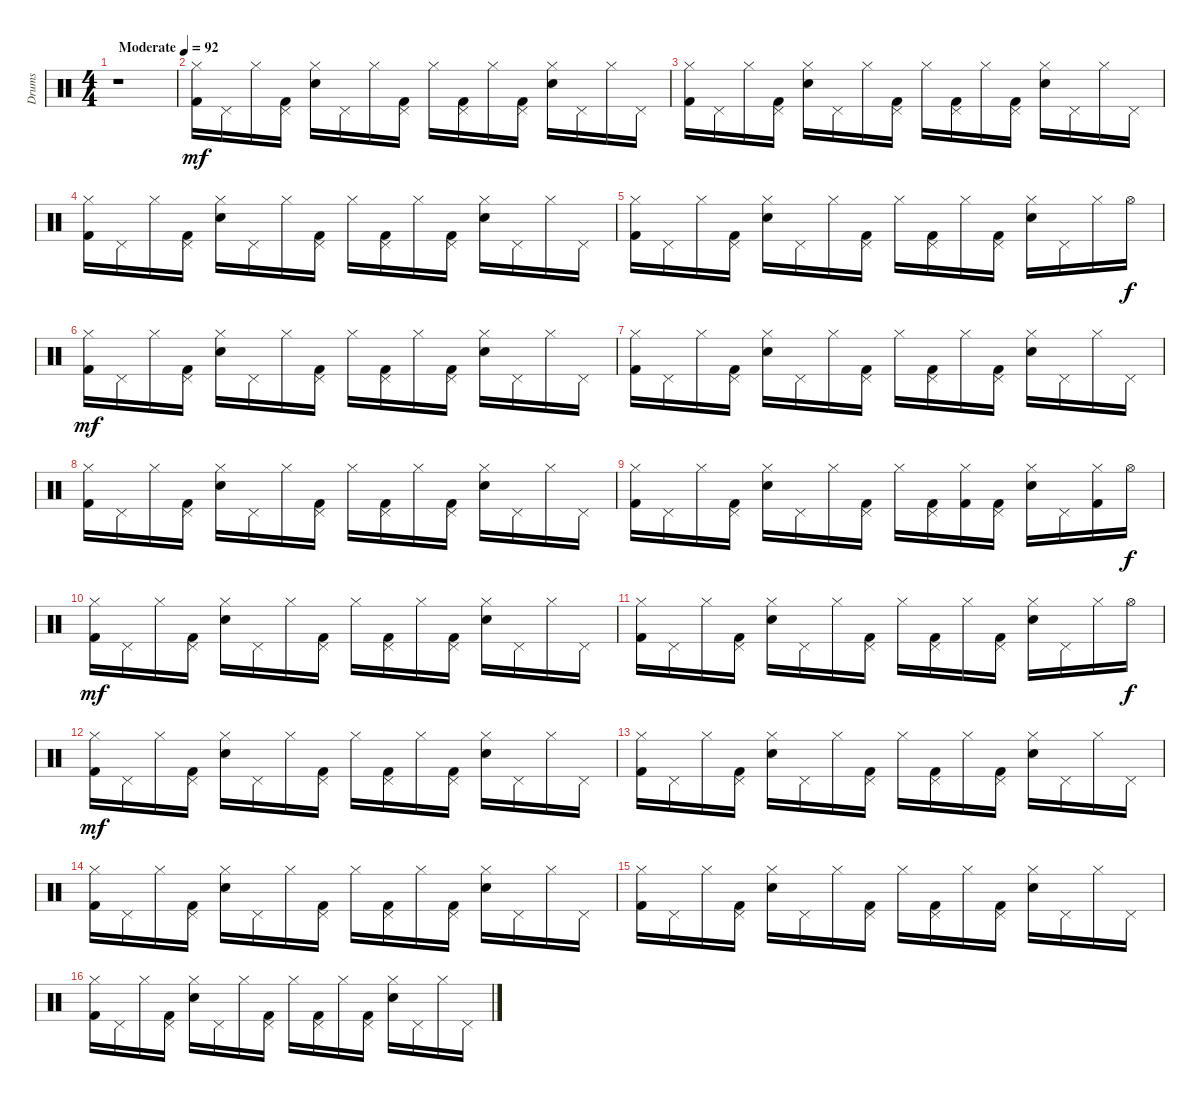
\track ("Drums" "Drums") {instrument percussion}
\staff {score}
\articulation defaults
\ts (4 4)
\tempo (92 "Moderate")
\clef neutral
\ks c
r.1{dy mf} |
("Kick (hit) 2" "Hi-Hat (closed)").16 "Pedal Hi-Hat (hit)".16 "Hi-Hat (closed)".16 ("Kick (hit) 2" "Pedal Hi-Hat (hit)").16 ("Electric Snare (hit)" "Hi-Hat (closed)").16 "Pedal Hi-Hat (hit)".16 "Hi-Hat (closed)".16 ("Kick (hit) 2" "Pedal Hi-Hat (hit)").16 "Hi-Hat (closed)".16 ("Kick (hit) 2" "Pedal Hi-Hat (hit)").16 "Hi-Hat (closed)".16 ("Kick (hit) 2" "Pedal Hi-Hat (hit)").16 ("Electric Snare (hit)" "Hi-Hat (closed)").16 "Pedal Hi-Hat (hit)".16 "Hi-Hat (closed)".16 "Pedal Hi-Hat (hit)".16 |
("Kick (hit) 2" "Hi-Hat (closed)").16 "Pedal Hi-Hat (hit)".16 "Hi-Hat (closed)".16 ("Kick (hit) 2" "Pedal Hi-Hat (hit)").16 ("Electric Snare (hit)" "Hi-Hat (closed)").16 "Pedal Hi-Hat (hit)".16 "Hi-Hat (closed)".16 ("Kick (hit) 2" "Pedal Hi-Hat (hit)").16 "Hi-Hat (closed)".16 ("Kick (hit) 2" "Pedal Hi-Hat (hit)").16 "Hi-Hat (closed)".16 ("Kick (hit) 2" "Pedal Hi-Hat (hit)").16 ("Electric Snare (hit)" "Hi-Hat (closed)").16 "Pedal Hi-Hat (hit)".16 "Hi-Hat (closed)".16 "Pedal Hi-Hat (hit)".16 |
("Kick (hit) 2" "Hi-Hat (closed)").16 "Pedal Hi-Hat (hit)".16 "Hi-Hat (closed)".16 ("Kick (hit) 2" "Pedal Hi-Hat (hit)").16 ("Electric Snare (hit)" "Hi-Hat (closed)").16 "Pedal Hi-Hat (hit)".16 "Hi-Hat (closed)".16 ("Kick (hit) 2" "Pedal Hi-Hat (hit)").16 "Hi-Hat (closed)".16 ("Kick (hit) 2" "Pedal Hi-Hat (hit)").16 "Hi-Hat (closed)".16 ("Kick (hit) 2" "Pedal Hi-Hat (hit)").16 ("Electric Snare (hit)" "Hi-Hat (closed)").16 "Pedal Hi-Hat (hit)".16 "Hi-Hat (closed)".16 "Pedal Hi-Hat (hit)".16 |
("Kick (hit) 2" "Hi-Hat (closed)").16 "Pedal Hi-Hat (hit)".16 "Hi-Hat (closed)".16 ("Kick (hit) 2" "Pedal Hi-Hat (hit)").16 ("Electric Snare (hit)" "Hi-Hat (closed)").16 "Pedal Hi-Hat (hit)".16 "Hi-Hat (closed)".16 ("Kick (hit) 2" "Pedal Hi-Hat (hit)").16 "Hi-Hat (closed)".16 ("Kick (hit) 2" "Pedal Hi-Hat (hit)").16 "Hi-Hat (closed)".16 ("Kick (hit) 2" "Pedal Hi-Hat (hit)").16 ("Electric Snare (hit)" "Hi-Hat (closed)").16 "Pedal Hi-Hat (hit)".16 "Hi-Hat (closed)".16 "Hi-Hat (open)".16{dy f} |
("Kick (hit) 2" "Hi-Hat (closed)").16{dy mf} "Pedal Hi-Hat (hit)".16 "Hi-Hat (closed)".16 ("Kick (hit) 2" "Pedal Hi-Hat (hit)").16 ("Electric Snare (hit)" "Hi-Hat (closed)").16 "Pedal Hi-Hat (hit)".16 "Hi-Hat (closed)".16 ("Kick (hit) 2" "Pedal Hi-Hat (hit)").16 "Hi-Hat (closed)".16 ("Kick (hit) 2" "Pedal Hi-Hat (hit)").16 "Hi-Hat (closed)".16 ("Kick (hit) 2" "Pedal Hi-Hat (hit)").16 ("Electric Snare (hit)" "Hi-Hat (closed)").16 "Pedal Hi-Hat (hit)".16 "Hi-Hat (closed)".16 "Pedal Hi-Hat (hit)".16 |
("Kick (hit) 2" "Hi-Hat (closed)").16 "Pedal Hi-Hat (hit)".16 "Hi-Hat (closed)".16 ("Kick (hit) 2" "Pedal Hi-Hat (hit)").16 ("Electric Snare (hit)" "Hi-Hat (closed)").16 "Pedal Hi-Hat (hit)".16 "Hi-Hat (closed)".16 ("Kick (hit) 2" "Pedal Hi-Hat (hit)").16 "Hi-Hat (closed)".16 ("Kick (hit) 2" "Pedal Hi-Hat (hit)").16 "Hi-Hat (closed)".16 ("Kick (hit) 2" "Pedal Hi-Hat (hit)").16 ("Electric Snare (hit)" "Hi-Hat (closed)").16 "Pedal Hi-Hat (hit)".16 "Hi-Hat (closed)".16 "Pedal Hi-Hat (hit)".16 |
("Kick (hit) 2" "Hi-Hat (closed)").16 "Pedal Hi-Hat (hit)".16 "Hi-Hat (closed)".16 ("Kick (hit) 2" "Pedal Hi-Hat (hit)").16 ("Electric Snare (hit)" "Hi-Hat (closed)").16 "Pedal Hi-Hat (hit)".16 "Hi-Hat (closed)".16 ("Kick (hit) 2" "Pedal Hi-Hat (hit)").16 "Hi-Hat (closed)".16 ("Kick (hit) 2" "Pedal Hi-Hat (hit)").16 "Hi-Hat (closed)".16 ("Kick (hit) 2" "Pedal Hi-Hat (hit)").16 ("Electric Snare (hit)" "Hi-Hat (closed)").16 "Pedal Hi-Hat (hit)".16 "Hi-Hat (closed)".16 "Pedal Hi-Hat (hit)".16 |
("Kick (hit) 2" "Hi-Hat (closed)").16 "Pedal Hi-Hat (hit)".16 "Hi-Hat (closed)".16 ("Kick (hit) 2" "Pedal Hi-Hat (hit)").16 ("Electric Snare (hit)" "Hi-Hat (closed)").16 "Pedal Hi-Hat (hit)".16 "Hi-Hat (closed)".16 ("Kick (hit) 2" "Pedal Hi-Hat (hit)").16 "Hi-Hat (closed)".16 ("Kick (hit) 2" "Pedal Hi-Hat (hit)").16 ("Kick (hit) 2" "Hi-Hat (closed)").16 ("Kick (hit) 2" "Pedal Hi-Hat (hit)").16 ("Electric Snare (hit)" "Hi-Hat (closed)").16 "Pedal Hi-Hat (hit)".16 ("Kick (hit) 2" "Hi-Hat (closed)").16 "Hi-Hat (open)".16{dy f} |
("Kick (hit) 2" "Hi-Hat (closed)").16{dy mf} "Pedal Hi-Hat (hit)".16 "Hi-Hat (closed)".16 ("Kick (hit) 2" "Pedal Hi-Hat (hit)").16 ("Electric Snare (hit)" "Hi-Hat (closed)").16 "Pedal Hi-Hat (hit)".16 "Hi-Hat (closed)".16 ("Kick (hit) 2" "Pedal Hi-Hat (hit)").16 "Hi-Hat (closed)".16 ("Kick (hit) 2" "Pedal Hi-Hat (hit)").16 "Hi-Hat (closed)".16 ("Kick (hit) 2" "Pedal Hi-Hat (hit)").16 ("Electric Snare (hit)" "Hi-Hat (closed)").16 "Pedal Hi-Hat (hit)".16 "Hi-Hat (closed)".16 "Pedal Hi-Hat (hit)".16 |
("Kick (hit) 2" "Hi-Hat (closed)").16 "Pedal Hi-Hat (hit)".16 "Hi-Hat (closed)".16 ("Kick (hit) 2" "Pedal Hi-Hat (hit)").16 ("Electric Snare (hit)" "Hi-Hat (closed)").16 "Pedal Hi-Hat (hit)".16 "Hi-Hat (closed)".16 ("Kick (hit) 2" "Pedal Hi-Hat (hit)").16 "Hi-Hat (closed)".16 ("Kick (hit) 2" "Pedal Hi-Hat (hit)").16 "Hi-Hat (closed)".16 ("Kick (hit) 2" "Pedal Hi-Hat (hit)").16 ("Electric Snare (hit)" "Hi-Hat (closed)").16 "Pedal Hi-Hat (hit)".16 "Hi-Hat (closed)".16 "Hi-Hat (open)".16{dy f} |
("Kick (hit) 2" "Hi-Hat (closed)").16{dy mf} "Pedal Hi-Hat (hit)".16 "Hi-Hat (closed)".16 ("Kick (hit) 2" "Pedal Hi-Hat (hit)").16 ("Electric Snare (hit)" "Hi-Hat (closed)").16 "Pedal Hi-Hat (hit)".16 "Hi-Hat (closed)".16 ("Kick (hit) 2" "Pedal Hi-Hat (hit)").16 "Hi-Hat (closed)".16 ("Kick (hit) 2" "Pedal Hi-Hat (hit)").16 "Hi-Hat (closed)".16 ("Kick (hit) 2" "Pedal Hi-Hat (hit)").16 ("Electric Snare (hit)" "Hi-Hat (closed)").16 "Pedal Hi-Hat (hit)".16 "Hi-Hat (closed)".16 "Pedal Hi-Hat (hit)".16 |
("Kick (hit) 2" "Hi-Hat (closed)").16 "Pedal Hi-Hat (hit)".16 "Hi-Hat (closed)".16 ("Kick (hit) 2" "Pedal Hi-Hat (hit)").16 ("Electric Snare (hit)" "Hi-Hat (closed)").16 "Pedal Hi-Hat (hit)".16 "Hi-Hat (closed)".16 ("Kick (hit) 2" "Pedal Hi-Hat (hit)").16 "Hi-Hat (closed)".16 ("Kick (hit) 2" "Pedal Hi-Hat (hit)").16 "Hi-Hat (closed)".16 ("Kick (hit) 2" "Pedal Hi-Hat (hit)").16 ("Electric Snare (hit)" "Hi-Hat (closed)").16 "Pedal Hi-Hat (hit)".16 "Hi-Hat (closed)".16 "Pedal Hi-Hat (hit)".16 |
("Kick (hit) 2" "Hi-Hat (closed)").16 "Pedal Hi-Hat (hit)".16 "Hi-Hat (closed)".16 ("Kick (hit) 2" "Pedal Hi-Hat (hit)").16 ("Electric Snare (hit)" "Hi-Hat (closed)").16 "Pedal Hi-Hat (hit)".16 "Hi-Hat (closed)".16 ("Kick (hit) 2" "Pedal Hi-Hat (hit)").16 "Hi-Hat (closed)".16 ("Kick (hit) 2" "Pedal Hi-Hat (hit)").16 "Hi-Hat (closed)".16 ("Kick (hit) 2" "Pedal Hi-Hat (hit)").16 ("Electric Snare (hit)" "Hi-Hat (closed)").16 "Pedal Hi-Hat (hit)".16 "Hi-Hat (closed)".16 "Pedal Hi-Hat (hit)".16 |
("Kick (hit) 2" "Hi-Hat (closed)").16 "Pedal Hi-Hat (hit)".16 "Hi-Hat (closed)".16 ("Kick (hit) 2" "Pedal Hi-Hat (hit)").16 ("Electric Snare (hit)" "Hi-Hat (closed)").16 "Pedal Hi-Hat (hit)".16 "Hi-Hat (closed)".16 ("Kick (hit) 2" "Pedal Hi-Hat (hit)").16 "Hi-Hat (closed)".16 ("Kick (hit) 2" "Pedal Hi-Hat (hit)").16 "Hi-Hat (closed)".16 ("Kick (hit) 2" "Pedal Hi-Hat (hit)").16 ("Electric Snare (hit)" "Hi-Hat (closed)").16 "Pedal Hi-Hat (hit)".16 "Hi-Hat (closed)".16 "Pedal Hi-Hat (hit)".16 |
("Kick (hit) 2" "Hi-Hat (closed)").16 "Pedal Hi-Hat (hit)".16 "Hi-Hat (closed)".16 ("Kick (hit) 2" "Pedal Hi-Hat (hit)").16 ("Electric Snare (hit)" "Hi-Hat (closed)").16 "Pedal Hi-Hat (hit)".16 "Hi-Hat (closed)".16 ("Kick (hit) 2" "Pedal Hi-Hat (hit)").16 "Hi-Hat (closed)".16 ("Kick (hit) 2" "Pedal Hi-Hat (hit)").16 "Hi-Hat (closed)".16 ("Kick (hit) 2" "Pedal Hi-Hat (hit)").16 ("Electric Snare (hit)" "Hi-Hat (closed)").16 "Pedal Hi-Hat (hit)".16 "Hi-Hat (closed)".16 "Pedal Hi-Hat (hit)".16
